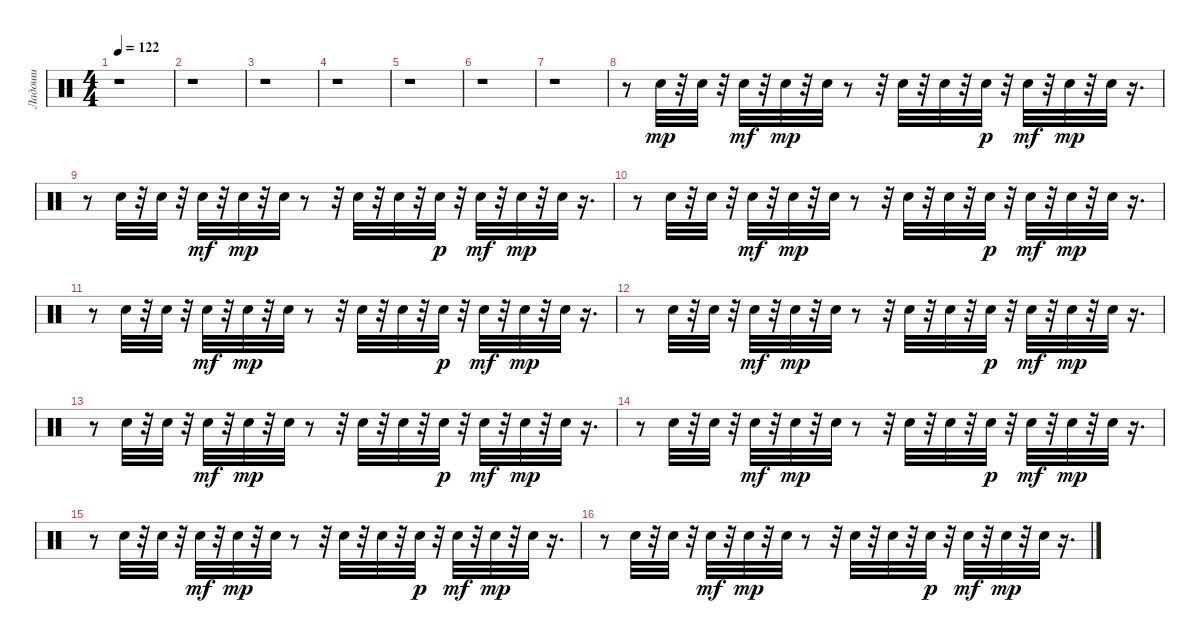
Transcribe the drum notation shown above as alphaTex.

\track ("Ладоши" "Ладоши") {instrument percussion}
\staff {score}
\articulation defaults
\ts (4 4)
\tempo 122
\clef neutral
\ks c
r.1{dy mp} |
r.1 |
r.1 |
r.1 |
r.1 |
r.1 |
r.1 |
r.8 "Hand Clap (hit)".32 r.32 "Hand Clap (hit)".32 r.32 "Hand Clap (hit)".32{dy mf} r.32 "Hand Clap (hit)".32{dy mp} r.32 "Hand Clap (hit)".32 r.8 r.32 "Hand Clap (hit)".32 r.32 "Hand Clap (hit)".32 r.32 "Hand Clap (hit)".32{dy p} r.32 "Hand Clap (hit)".32{dy mf} r.32 "Hand Clap (hit)".32{dy mp} r.32 "Hand Clap (hit)".32 r.16{d} |
r.8 "Hand Clap (hit)".32 r.32 "Hand Clap (hit)".32 r.32 "Hand Clap (hit)".32{dy mf} r.32 "Hand Clap (hit)".32{dy mp} r.32 "Hand Clap (hit)".32 r.8 r.32 "Hand Clap (hit)".32 r.32 "Hand Clap (hit)".32 r.32 "Hand Clap (hit)".32{dy p} r.32 "Hand Clap (hit)".32{dy mf} r.32 "Hand Clap (hit)".32{dy mp} r.32 "Hand Clap (hit)".32 r.16{d} |
r.8 "Hand Clap (hit)".32 r.32 "Hand Clap (hit)".32 r.32 "Hand Clap (hit)".32{dy mf} r.32 "Hand Clap (hit)".32{dy mp} r.32 "Hand Clap (hit)".32 r.8 r.32 "Hand Clap (hit)".32 r.32 "Hand Clap (hit)".32 r.32 "Hand Clap (hit)".32{dy p} r.32 "Hand Clap (hit)".32{dy mf} r.32 "Hand Clap (hit)".32{dy mp} r.32 "Hand Clap (hit)".32 r.16{d} |
r.8 "Hand Clap (hit)".32 r.32 "Hand Clap (hit)".32 r.32 "Hand Clap (hit)".32{dy mf} r.32 "Hand Clap (hit)".32{dy mp} r.32 "Hand Clap (hit)".32 r.8 r.32 "Hand Clap (hit)".32 r.32 "Hand Clap (hit)".32 r.32 "Hand Clap (hit)".32{dy p} r.32 "Hand Clap (hit)".32{dy mf} r.32 "Hand Clap (hit)".32{dy mp} r.32 "Hand Clap (hit)".32 r.16{d} |
r.8 "Hand Clap (hit)".32 r.32 "Hand Clap (hit)".32 r.32 "Hand Clap (hit)".32{dy mf} r.32 "Hand Clap (hit)".32{dy mp} r.32 "Hand Clap (hit)".32 r.8 r.32 "Hand Clap (hit)".32 r.32 "Hand Clap (hit)".32 r.32 "Hand Clap (hit)".32{dy p} r.32 "Hand Clap (hit)".32{dy mf} r.32 "Hand Clap (hit)".32{dy mp} r.32 "Hand Clap (hit)".32 r.16{d} |
r.8 "Hand Clap (hit)".32 r.32 "Hand Clap (hit)".32 r.32 "Hand Clap (hit)".32{dy mf} r.32 "Hand Clap (hit)".32{dy mp} r.32 "Hand Clap (hit)".32 r.8 r.32 "Hand Clap (hit)".32 r.32 "Hand Clap (hit)".32 r.32 "Hand Clap (hit)".32{dy p} r.32 "Hand Clap (hit)".32{dy mf} r.32 "Hand Clap (hit)".32{dy mp} r.32 "Hand Clap (hit)".32 r.16{d} |
r.8 "Hand Clap (hit)".32 r.32 "Hand Clap (hit)".32 r.32 "Hand Clap (hit)".32{dy mf} r.32 "Hand Clap (hit)".32{dy mp} r.32 "Hand Clap (hit)".32 r.8 r.32 "Hand Clap (hit)".32 r.32 "Hand Clap (hit)".32 r.32 "Hand Clap (hit)".32{dy p} r.32 "Hand Clap (hit)".32{dy mf} r.32 "Hand Clap (hit)".32{dy mp} r.32 "Hand Clap (hit)".32 r.16{d} |
r.8 "Hand Clap (hit)".32 r.32 "Hand Clap (hit)".32 r.32 "Hand Clap (hit)".32{dy mf} r.32 "Hand Clap (hit)".32{dy mp} r.32 "Hand Clap (hit)".32 r.8 r.32 "Hand Clap (hit)".32 r.32 "Hand Clap (hit)".32 r.32 "Hand Clap (hit)".32{dy p} r.32 "Hand Clap (hit)".32{dy mf} r.32 "Hand Clap (hit)".32{dy mp} r.32 "Hand Clap (hit)".32 r.16{d} |
r.8 "Hand Clap (hit)".32 r.32 "Hand Clap (hit)".32 r.32 "Hand Clap (hit)".32{dy mf} r.32 "Hand Clap (hit)".32{dy mp} r.32 "Hand Clap (hit)".32 r.8 r.32 "Hand Clap (hit)".32 r.32 "Hand Clap (hit)".32 r.32 "Hand Clap (hit)".32{dy p} r.32 "Hand Clap (hit)".32{dy mf} r.32 "Hand Clap (hit)".32{dy mp} r.32 "Hand Clap (hit)".32 r.16{d}
